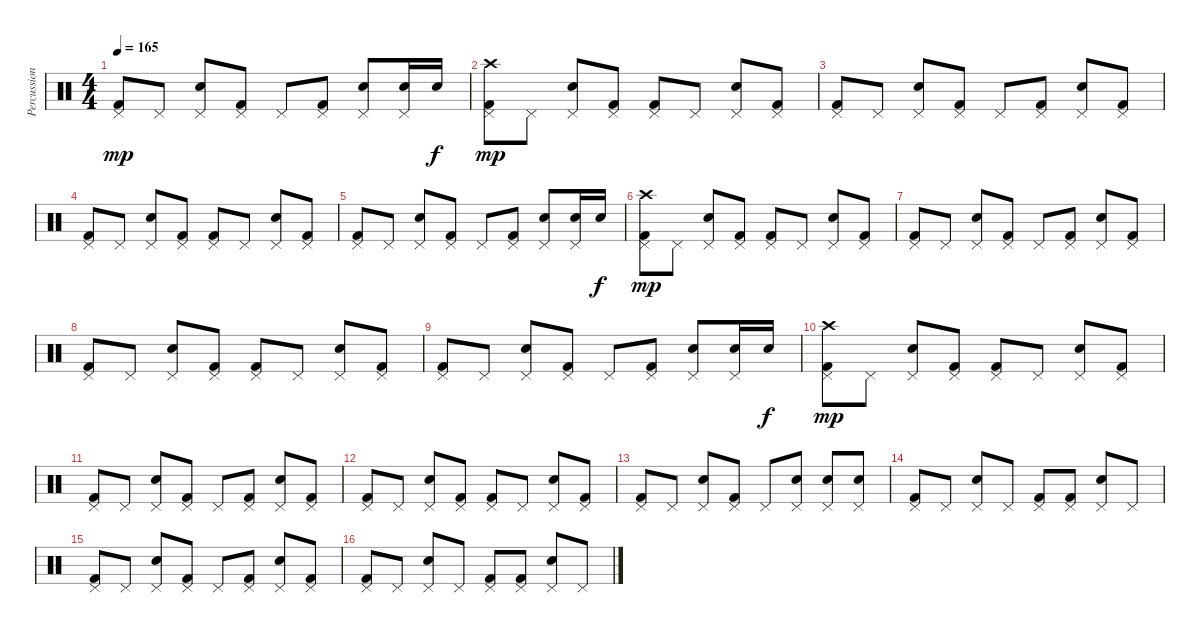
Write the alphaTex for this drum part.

\track ("Percussion" "Percussion") {instrument percussion}
\staff {score}
\articulation defaults
\ts (4 4)
\tempo 165
\clef neutral
\ks c
("Kick (hit) 2" "Pedal Hi-Hat (hit)").8{dy mp} "Pedal Hi-Hat (hit)".8 ("Pedal Hi-Hat (hit)" "Snare (hit) 2").8 ("Pedal Hi-Hat (hit)" "Kick (hit) 2").8 "Pedal Hi-Hat (hit)".8 ("Pedal Hi-Hat (hit)" "Kick (hit) 2").8 ("Pedal Hi-Hat (hit)" "Snare (hit) 2").8 ("Snare (hit) 2" "Pedal Hi-Hat (hit)").16 "Snare (hit) 2".16{dy f} |
("Crash high (hit)" "Pedal Hi-Hat (hit)" "Kick (hit) 2").8{dy mp} "Pedal Hi-Hat (hit)".8 ("Snare (hit) 2" "Pedal Hi-Hat (hit)").8 ("Kick (hit) 2" "Pedal Hi-Hat (hit)").8 ("Kick (hit) 2" "Pedal Hi-Hat (hit)").8 "Pedal Hi-Hat (hit)".8 ("Snare (hit) 2" "Pedal Hi-Hat (hit)").8 ("Kick (hit) 2" "Pedal Hi-Hat (hit)").8 |
("Kick (hit) 2" "Pedal Hi-Hat (hit)").8 "Pedal Hi-Hat (hit)".8 ("Pedal Hi-Hat (hit)" "Snare (hit) 2").8 ("Pedal Hi-Hat (hit)" "Kick (hit) 2").8 "Pedal Hi-Hat (hit)".8 ("Pedal Hi-Hat (hit)" "Kick (hit) 2").8 ("Pedal Hi-Hat (hit)" "Snare (hit) 2").8 ("Pedal Hi-Hat (hit)" "Kick (hit) 2").8 |
("Pedal Hi-Hat (hit)" "Kick (hit) 2").8 "Pedal Hi-Hat (hit)".8 ("Snare (hit) 2" "Pedal Hi-Hat (hit)").8 ("Kick (hit) 2" "Pedal Hi-Hat (hit)").8 ("Kick (hit) 2" "Pedal Hi-Hat (hit)").8 "Pedal Hi-Hat (hit)".8 ("Snare (hit) 2" "Pedal Hi-Hat (hit)").8 ("Kick (hit) 2" "Pedal Hi-Hat (hit)").8 |
("Kick (hit) 2" "Pedal Hi-Hat (hit)").8 "Pedal Hi-Hat (hit)".8 ("Pedal Hi-Hat (hit)" "Snare (hit) 2").8 ("Pedal Hi-Hat (hit)" "Kick (hit) 2").8 "Pedal Hi-Hat (hit)".8 ("Pedal Hi-Hat (hit)" "Kick (hit) 2").8 ("Pedal Hi-Hat (hit)" "Snare (hit) 2").8 ("Snare (hit) 2" "Pedal Hi-Hat (hit)").16 "Snare (hit) 2".16{dy f} |
("Crash high (hit)" "Pedal Hi-Hat (hit)" "Kick (hit) 2").8{dy mp} "Pedal Hi-Hat (hit)".8 ("Snare (hit) 2" "Pedal Hi-Hat (hit)").8 ("Kick (hit) 2" "Pedal Hi-Hat (hit)").8 ("Kick (hit) 2" "Pedal Hi-Hat (hit)").8 "Pedal Hi-Hat (hit)".8 ("Snare (hit) 2" "Pedal Hi-Hat (hit)").8 ("Kick (hit) 2" "Pedal Hi-Hat (hit)").8 |
("Kick (hit) 2" "Pedal Hi-Hat (hit)").8 "Pedal Hi-Hat (hit)".8 ("Pedal Hi-Hat (hit)" "Snare (hit) 2").8 ("Pedal Hi-Hat (hit)" "Kick (hit) 2").8 "Pedal Hi-Hat (hit)".8 ("Pedal Hi-Hat (hit)" "Kick (hit) 2").8 ("Pedal Hi-Hat (hit)" "Snare (hit) 2").8 ("Pedal Hi-Hat (hit)" "Kick (hit) 2").8 |
("Pedal Hi-Hat (hit)" "Kick (hit) 2").8 "Pedal Hi-Hat (hit)".8 ("Snare (hit) 2" "Pedal Hi-Hat (hit)").8 ("Kick (hit) 2" "Pedal Hi-Hat (hit)").8 ("Kick (hit) 2" "Pedal Hi-Hat (hit)").8 "Pedal Hi-Hat (hit)".8 ("Snare (hit) 2" "Pedal Hi-Hat (hit)").8 ("Kick (hit) 2" "Pedal Hi-Hat (hit)").8 |
("Kick (hit) 2" "Pedal Hi-Hat (hit)").8 "Pedal Hi-Hat (hit)".8 ("Pedal Hi-Hat (hit)" "Snare (hit) 2").8 ("Pedal Hi-Hat (hit)" "Kick (hit) 2").8 "Pedal Hi-Hat (hit)".8 ("Pedal Hi-Hat (hit)" "Kick (hit) 2").8 ("Pedal Hi-Hat (hit)" "Snare (hit) 2").8 ("Snare (hit) 2" "Pedal Hi-Hat (hit)").16 "Snare (hit) 2".16{dy f} |
("Crash high (hit)" "Pedal Hi-Hat (hit)" "Kick (hit) 2").8{dy mp} "Pedal Hi-Hat (hit)".8 ("Snare (hit) 2" "Pedal Hi-Hat (hit)").8 ("Kick (hit) 2" "Pedal Hi-Hat (hit)").8 ("Kick (hit) 2" "Pedal Hi-Hat (hit)").8 "Pedal Hi-Hat (hit)".8 ("Snare (hit) 2" "Pedal Hi-Hat (hit)").8 ("Kick (hit) 2" "Pedal Hi-Hat (hit)").8 |
("Kick (hit) 2" "Pedal Hi-Hat (hit)").8 "Pedal Hi-Hat (hit)".8 ("Pedal Hi-Hat (hit)" "Snare (hit) 2").8 ("Pedal Hi-Hat (hit)" "Kick (hit) 2").8 "Pedal Hi-Hat (hit)".8 ("Pedal Hi-Hat (hit)" "Kick (hit) 2").8 ("Pedal Hi-Hat (hit)" "Snare (hit) 2").8 ("Pedal Hi-Hat (hit)" "Kick (hit) 2").8 |
("Pedal Hi-Hat (hit)" "Kick (hit) 2").8 "Pedal Hi-Hat (hit)".8 ("Snare (hit) 2" "Pedal Hi-Hat (hit)").8 ("Kick (hit) 2" "Pedal Hi-Hat (hit)").8 ("Kick (hit) 2" "Pedal Hi-Hat (hit)").8 "Pedal Hi-Hat (hit)".8 ("Snare (hit) 2" "Pedal Hi-Hat (hit)").8 ("Kick (hit) 2" "Pedal Hi-Hat (hit)").8 |
("Kick (hit) 2" "Pedal Hi-Hat (hit)").8 "Pedal Hi-Hat (hit)".8 ("Pedal Hi-Hat (hit)" "Snare (hit) 2").8 ("Pedal Hi-Hat (hit)" "Kick (hit) 2").8 "Pedal Hi-Hat (hit)".8 ("Snare (hit) 2" "Pedal Hi-Hat (hit)").8 ("Pedal Hi-Hat (hit)" "Snare (hit) 2").8 ("Snare (hit) 2" "Pedal Hi-Hat (hit)").8 |
("Pedal Hi-Hat (hit)" "Kick (hit) 2").8 "Pedal Hi-Hat (hit)".8 ("Pedal Hi-Hat (hit)" "Snare (hit) 2").8 "Pedal Hi-Hat (hit)".8 ("Pedal Hi-Hat (hit)" "Kick (hit) 2").8 ("Pedal Hi-Hat (hit)" "Kick (hit) 2").8 ("Pedal Hi-Hat (hit)" "Snare (hit) 2").8 "Pedal Hi-Hat (hit)".8 |
("Pedal Hi-Hat (hit)" "Kick (hit) 2").8 "Pedal Hi-Hat (hit)".8 ("Pedal Hi-Hat (hit)" "Snare (hit) 2").8 ("Pedal Hi-Hat (hit)" "Kick (hit) 2").8 "Pedal Hi-Hat (hit)".8 ("Pedal Hi-Hat (hit)" "Kick (hit) 2").8 ("Pedal Hi-Hat (hit)" "Snare (hit) 2").8 ("Pedal Hi-Hat (hit)" "Kick (hit) 2").8 |
("Pedal Hi-Hat (hit)" "Kick (hit) 2").8 "Pedal Hi-Hat (hit)".8 ("Pedal Hi-Hat (hit)" "Snare (hit) 2").8 "Pedal Hi-Hat (hit)".8 ("Pedal Hi-Hat (hit)" "Kick (hit) 2").8 ("Pedal Hi-Hat (hit)" "Kick (hit) 2").8 ("Pedal Hi-Hat (hit)" "Snare (hit) 2").8 "Pedal Hi-Hat (hit)".8
